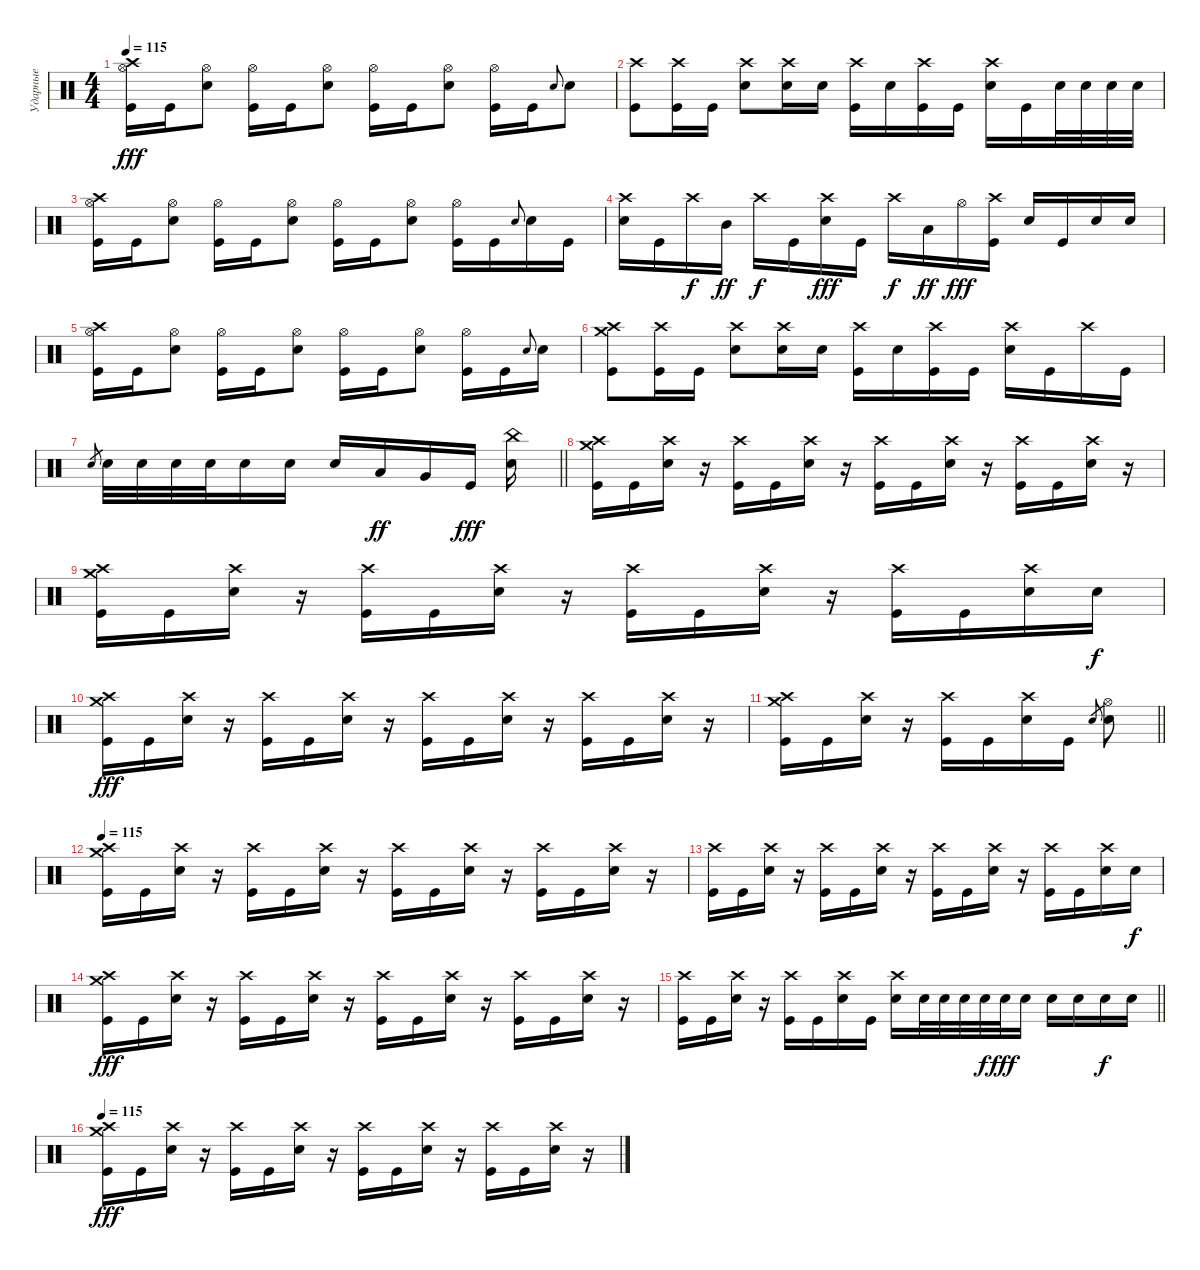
\track ("Ударные" "Ударные") {instrument percussion}
\staff {score}
\articulation defaults
\ts (4 4)
\tempo 115
\clef neutral
\ks c
("Hi-Hat (open)" "Crash high (hit)" "Kick (hit)").16{dy fff} "Kick (hit)".16 ("Hi-Hat (open)" "Electric Snare (hit)").8 ("Hi-Hat (open)" "Kick (hit)").16 "Kick (hit)".16 ("Hi-Hat (open)" "Electric Snare (hit)").8 ("Hi-Hat (open)" "Kick (hit)").16 "Kick (hit)".16 ("Hi-Hat (open)" "Electric Snare (hit)").8 ("Hi-Hat (open)" "Kick (hit)").16 "Kick (hit)".16 "Electric Snare (hit)".8{gr onbeat} "Electric Snare (hit)".8 |
("Crash high (hit)" "Kick (hit)").8 ("Crash high (hit)" "Kick (hit)").16 "Kick (hit)".16 ("Crash high (hit)" "Electric Snare (hit)").8 ("Crash high (hit)" "Electric Snare (hit)").16 "Electric Snare (hit)".16 ("Crash high (hit)" "Kick (hit)").16 "Electric Snare (hit)".16 ("Crash high (hit)" "Kick (hit)").16 "Kick (hit)".16 ("Crash high (hit)" "Electric Snare (hit)").16 "Kick (hit)".16 "Electric Snare (hit)".32 "Electric Snare (hit)".32 "Electric Snare (hit)".32 "Electric Snare (hit)".32 |
("Hi-Hat (open)" "Crash high (hit)" "Kick (hit)").16 "Kick (hit)".16 ("Hi-Hat (open)" "Electric Snare (hit)").8 ("Hi-Hat (open)" "Kick (hit)").16 "Kick (hit)".16 ("Hi-Hat (open)" "Electric Snare (hit)").8 ("Hi-Hat (open)" "Kick (hit)").16 "Kick (hit)".16 ("Hi-Hat (open)" "Electric Snare (hit)").8 ("Hi-Hat (open)" "Kick (hit)").16 "Kick (hit)".16 "Electric Snare (hit)".8{gr onbeat} "Electric Snare (hit)".16 "Kick (hit)".16 |
("Crash high (hit)" "Electric Snare (hit)").16 "Kick (hit)".16 "Crash high (hit)".16{dy f} "Mid Tom (hit)".16{dy ff} "Crash high (hit)".16{dy f} "Kick (hit)".16 ("Crash high (hit)" "Electric Snare (hit)").16{dy fff} "Kick (hit)".16 "Crash high (hit)".16{dy f} "Low Tom (hit)".16{dy ff} "Hi-Hat (open)".16{dy fff} ("Crash high (hit)" "Kick (hit)").16 "Electric Snare (hit)".16 "Kick (hit)".16 "Electric Snare (hit)".16 "Electric Snare (hit)".16 |
("Hi-Hat (open)" "Crash high (hit)" "Kick (hit)").16 "Kick (hit)".16 ("Hi-Hat (open)" "Electric Snare (hit)").8 ("Hi-Hat (open)" "Kick (hit)").16 "Kick (hit)".16 ("Hi-Hat (open)" "Electric Snare (hit)").8 ("Hi-Hat (open)" "Kick (hit)").16 "Kick (hit)".16 ("Hi-Hat (open)" "Electric Snare (hit)").8 ("Hi-Hat (open)" "Kick (hit)").16 "Kick (hit)".16 "Electric Snare (hit)".8{gr onbeat} "Electric Snare (hit)".16 |
("Crash medium (hit)" "Crash high (hit)" "Kick (hit)").8 ("Crash high (hit)" "Kick (hit)").16 "Kick (hit)".16 ("Crash high (hit)" "Electric Snare (hit)").8 ("Crash high (hit)" "Electric Snare (hit)").16 "Electric Snare (hit)".16 ("Crash high (hit)" "Kick (hit)").16 "Electric Snare (hit)".16 ("Crash high (hit)" "Kick (hit)").16 "Kick (hit)".16 ("Crash high (hit)" "Electric Snare (hit)").16 "Kick (hit)".16 "Crash high (hit)".16 "Kick (hit)".16 |
\barLineRight lightlight "Electric Snare (hit)".8{gr} "Electric Snare (hit)".32 "Electric Snare (hit)".32 "Electric Snare (hit)".32 "Electric Snare (hit)".32 "Electric Snare (hit)".16 "Electric Snare (hit)".16 "Electric Snare (hit)".16 "Low Tom (hit)".16{dy ff} "Very Low Tom (hit)".16 "Kick (hit)".16{dy fff}
("China (hit)" "Electric Snare (hit)").16 |
("Crash medium (hit)" "Crash high (hit)" "Kick (hit)").16 "Kick (hit)".16 ("Crash high (hit)" "Electric Snare (hit)").16 r.16 ("Crash high (hit)" "Kick (hit)").16 "Kick (hit)".16 ("Crash high (hit)" "Electric Snare (hit)").16 r.16 ("Crash high (hit)" "Kick (hit)").16 "Kick (hit)".16 ("Crash high (hit)" "Electric Snare (hit)").16 r.16 ("Crash high (hit)" "Kick (hit)").16 "Kick (hit)".16 ("Crash high (hit)" "Electric Snare (hit)").16 r.16 |
("Crash medium (hit)" "Crash high (hit)" "Kick (hit)").16 "Kick (hit)".16 ("Crash high (hit)" "Electric Snare (hit)").16 r.16 ("Crash high (hit)" "Kick (hit)").16 "Kick (hit)".16 ("Crash high (hit)" "Electric Snare (hit)").16 r.16 ("Crash high (hit)" "Kick (hit)").16 "Kick (hit)".16 ("Crash high (hit)" "Electric Snare (hit)").16 r.16 ("Crash high (hit)" "Kick (hit)").16 "Kick (hit)".16 ("Crash high (hit)" "Electric Snare (hit)").16 "Electric Snare (hit)".16{dy f} |
("Crash medium (hit)" "Crash high (hit)" "Kick (hit)").16{dy fff} "Kick (hit)".16 ("Crash high (hit)" "Electric Snare (hit)").16 r.16 ("Crash high (hit)" "Kick (hit)").16 "Kick (hit)".16 ("Crash high (hit)" "Electric Snare (hit)").16 r.16 ("Crash high (hit)" "Kick (hit)").16 "Kick (hit)".16 ("Crash high (hit)" "Electric Snare (hit)").16 r.16 ("Crash high (hit)" "Kick (hit)").16 "Kick (hit)".16 ("Crash high (hit)" "Electric Snare (hit)").16 r.16 |
\barLineRight lightlight
("Crash medium (hit)" "Crash high (hit)" "Kick (hit)").16 "Kick (hit)".16 ("Crash high (hit)" "Electric Snare (hit)").16 r.16 ("Crash high (hit)" "Kick (hit)").16 "Kick (hit)".16 ("Crash high (hit)" "Electric Snare (hit)").16 "Kick (hit)".16 "Electric Snare (hit)".8{gr} ("Hi-Hat (open)" "Electric Snare (hit)").8 |
\tempo 115
("Crash medium (hit)" "Crash high (hit)" "Kick (hit)").16 "Kick (hit)".16 ("Crash high (hit)" "Electric Snare (hit)").16 r.16 ("Crash high (hit)" "Kick (hit)").16 "Kick (hit)".16 ("Crash high (hit)" "Electric Snare (hit)").16 r.16 ("Crash high (hit)" "Kick (hit)").16 "Kick (hit)".16 ("Crash high (hit)" "Electric Snare (hit)").16 r.16 ("Crash high (hit)" "Kick (hit)").16 "Kick (hit)".16 ("Crash high (hit)" "Electric Snare (hit)").16 r.16 |
("Crash high (hit)" "Kick (hit)").16 "Kick (hit)".16 ("Crash high (hit)" "Electric Snare (hit)").16 r.16 ("Crash high (hit)" "Kick (hit)").16 "Kick (hit)".16 ("Crash high (hit)" "Electric Snare (hit)").16 r.16 ("Crash high (hit)" "Kick (hit)").16 "Kick (hit)".16 ("Crash high (hit)" "Electric Snare (hit)").16 r.16 ("Crash high (hit)" "Kick (hit)").16 "Kick (hit)".16 ("Crash high (hit)" "Electric Snare (hit)").16 "Electric Snare (hit)".16{dy f} |
("Crash medium (hit)" "Crash high (hit)" "Kick (hit)").16{dy fff} "Kick (hit)".16 ("Crash high (hit)" "Electric Snare (hit)").16 r.16 ("Crash high (hit)" "Kick (hit)").16 "Kick (hit)".16 ("Crash high (hit)" "Electric Snare (hit)").16 r.16 ("Crash high (hit)" "Kick (hit)").16 "Kick (hit)".16 ("Crash high (hit)" "Electric Snare (hit)").16 r.16 ("Crash high (hit)" "Kick (hit)").16 "Kick (hit)".16 ("Crash high (hit)" "Electric Snare (hit)").16 r.16 |
\barLineRight lightlight
("Crash high (hit)" "Kick (hit)").16 "Kick (hit)".16 ("Crash high (hit)" "Electric Snare (hit)").16 r.16 ("Crash high (hit)" "Kick (hit)").16 "Kick (hit)".16 ("Crash high (hit)" "Electric Snare (hit)").16 "Kick (hit)".16 ("Crash high (hit)" "Electric Snare (hit)").16 "Electric Snare (hit)".32 "Electric Snare (hit)".32 "Electric Snare (hit)".32 "Electric Snare (hit)".32{dy f} "Electric Snare (hit)".32{dy fff} "Electric Snare (hit)".16 "Electric Snare (hit)".16 "Electric Snare (hit)".16 "Electric Snare (hit)".16{dy f} "Electric Snare (hit)".16 |
\tempo 115
("Crash medium (hit)" "Crash high (hit)" "Kick (hit)").16{dy fff} "Kick (hit)".16 ("Crash high (hit)" "Electric Snare (hit)").16 r.16 ("Crash high (hit)" "Kick (hit)").16 "Kick (hit)".16 ("Crash high (hit)" "Electric Snare (hit)").16 r.16 ("Crash high (hit)" "Kick (hit)").16 "Kick (hit)".16 ("Crash high (hit)" "Electric Snare (hit)").16 r.16 ("Crash high (hit)" "Kick (hit)").16 "Kick (hit)".16 ("Crash high (hit)" "Electric Snare (hit)").16 r.16
